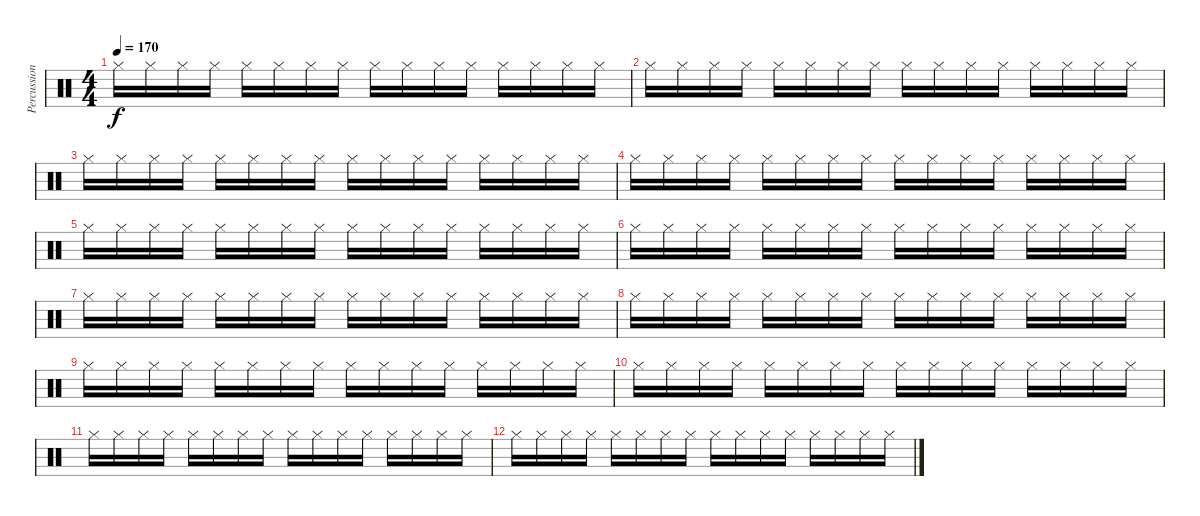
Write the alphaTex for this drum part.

\track ("Percussion" "Percussion") {instrument percussion}
\staff {score}
\articulation defaults
\ts (4 4)
\tempo 170
\clef neutral
\ks c "Hi-Hat (closed)".16{dy f} "Hi-Hat (closed)".16 "Hi-Hat (closed)".16 "Hi-Hat (closed)".16 "Hi-Hat (closed)".16 "Hi-Hat (closed)".16 "Hi-Hat (closed)".16 "Hi-Hat (closed)".16 "Hi-Hat (closed)".16 "Hi-Hat (closed)".16 "Hi-Hat (closed)".16 "Hi-Hat (closed)".16 "Hi-Hat (closed)".16 "Hi-Hat (closed)".16 "Hi-Hat (closed)".16 "Hi-Hat (closed)".16
|
"Hi-Hat (closed)".16 "Hi-Hat (closed)".16 "Hi-Hat (closed)".16 "Hi-Hat (closed)".16 "Hi-Hat (closed)".16 "Hi-Hat (closed)".16 "Hi-Hat (closed)".16 "Hi-Hat (closed)".16 "Hi-Hat (closed)".16 "Hi-Hat (closed)".16 "Hi-Hat (closed)".16 "Hi-Hat (closed)".16 "Hi-Hat (closed)".16 "Hi-Hat (closed)".16 "Hi-Hat (closed)".16 "Hi-Hat (closed)".16 |
"Hi-Hat (closed)".16 "Hi-Hat (closed)".16 "Hi-Hat (closed)".16 "Hi-Hat (closed)".16 "Hi-Hat (closed)".16 "Hi-Hat (closed)".16 "Hi-Hat (closed)".16 "Hi-Hat (closed)".16 "Hi-Hat (closed)".16 "Hi-Hat (closed)".16 "Hi-Hat (closed)".16 "Hi-Hat (closed)".16 "Hi-Hat (closed)".16 "Hi-Hat (closed)".16 "Hi-Hat (closed)".16 "Hi-Hat (closed)".16 |
"Hi-Hat (closed)".16 "Hi-Hat (closed)".16 "Hi-Hat (closed)".16 "Hi-Hat (closed)".16 "Hi-Hat (closed)".16 "Hi-Hat (closed)".16 "Hi-Hat (closed)".16 "Hi-Hat (closed)".16 "Hi-Hat (closed)".16 "Hi-Hat (closed)".16 "Hi-Hat (closed)".16 "Hi-Hat (closed)".16 "Hi-Hat (closed)".16 "Hi-Hat (closed)".16 "Hi-Hat (closed)".16 "Hi-Hat (closed)".16 |
"Hi-Hat (closed)".16 "Hi-Hat (closed)".16 "Hi-Hat (closed)".16 "Hi-Hat (closed)".16 "Hi-Hat (closed)".16 "Hi-Hat (closed)".16 "Hi-Hat (closed)".16 "Hi-Hat (closed)".16 "Hi-Hat (closed)".16 "Hi-Hat (closed)".16 "Hi-Hat (closed)".16 "Hi-Hat (closed)".16 "Hi-Hat (closed)".16 "Hi-Hat (closed)".16 "Hi-Hat (closed)".16 "Hi-Hat (closed)".16 |
"Hi-Hat (closed)".16 "Hi-Hat (closed)".16 "Hi-Hat (closed)".16 "Hi-Hat (closed)".16 "Hi-Hat (closed)".16 "Hi-Hat (closed)".16 "Hi-Hat (closed)".16 "Hi-Hat (closed)".16 "Hi-Hat (closed)".16 "Hi-Hat (closed)".16 "Hi-Hat (closed)".16 "Hi-Hat (closed)".16 "Hi-Hat (closed)".16 "Hi-Hat (closed)".16 "Hi-Hat (closed)".16 "Hi-Hat (closed)".16 |
"Hi-Hat (closed)".16 "Hi-Hat (closed)".16 "Hi-Hat (closed)".16 "Hi-Hat (closed)".16 "Hi-Hat (closed)".16 "Hi-Hat (closed)".16 "Hi-Hat (closed)".16 "Hi-Hat (closed)".16 "Hi-Hat (closed)".16 "Hi-Hat (closed)".16 "Hi-Hat (closed)".16 "Hi-Hat (closed)".16 "Hi-Hat (closed)".16 "Hi-Hat (closed)".16 "Hi-Hat (closed)".16 "Hi-Hat (closed)".16 |
"Hi-Hat (closed)".16 "Hi-Hat (closed)".16 "Hi-Hat (closed)".16 "Hi-Hat (closed)".16 "Hi-Hat (closed)".16 "Hi-Hat (closed)".16 "Hi-Hat (closed)".16 "Hi-Hat (closed)".16 "Hi-Hat (closed)".16 "Hi-Hat (closed)".16 "Hi-Hat (closed)".16 "Hi-Hat (closed)".16 "Hi-Hat (closed)".16 "Hi-Hat (closed)".16 "Hi-Hat (closed)".16 "Hi-Hat (closed)".16 |
"Hi-Hat (closed)".16 "Hi-Hat (closed)".16 "Hi-Hat (closed)".16 "Hi-Hat (closed)".16 "Hi-Hat (closed)".16 "Hi-Hat (closed)".16 "Hi-Hat (closed)".16 "Hi-Hat (closed)".16 "Hi-Hat (closed)".16 "Hi-Hat (closed)".16 "Hi-Hat (closed)".16 "Hi-Hat (closed)".16 "Hi-Hat (closed)".16 "Hi-Hat (closed)".16 "Hi-Hat (closed)".16 "Hi-Hat (closed)".16 |
"Hi-Hat (closed)".16 "Hi-Hat (closed)".16 "Hi-Hat (closed)".16 "Hi-Hat (closed)".16 "Hi-Hat (closed)".16 "Hi-Hat (closed)".16 "Hi-Hat (closed)".16 "Hi-Hat (closed)".16 "Hi-Hat (closed)".16 "Hi-Hat (closed)".16 "Hi-Hat (closed)".16 "Hi-Hat (closed)".16 "Hi-Hat (closed)".16 "Hi-Hat (closed)".16 "Hi-Hat (closed)".16 "Hi-Hat (closed)".16 |
"Hi-Hat (closed)".16 "Hi-Hat (closed)".16 "Hi-Hat (closed)".16 "Hi-Hat (closed)".16 "Hi-Hat (closed)".16 "Hi-Hat (closed)".16 "Hi-Hat (closed)".16 "Hi-Hat (closed)".16 "Hi-Hat (closed)".16 "Hi-Hat (closed)".16 "Hi-Hat (closed)".16 "Hi-Hat (closed)".16 "Hi-Hat (closed)".16 "Hi-Hat (closed)".16 "Hi-Hat (closed)".16 "Hi-Hat (closed)".16 |
"Hi-Hat (closed)".16 "Hi-Hat (closed)".16 "Hi-Hat (closed)".16 "Hi-Hat (closed)".16 "Hi-Hat (closed)".16 "Hi-Hat (closed)".16 "Hi-Hat (closed)".16 "Hi-Hat (closed)".16 "Hi-Hat (closed)".16 "Hi-Hat (closed)".16 "Hi-Hat (closed)".16 "Hi-Hat (closed)".16 "Hi-Hat (closed)".16 "Hi-Hat (closed)".16 "Hi-Hat (closed)".16 "Hi-Hat (closed)".16
